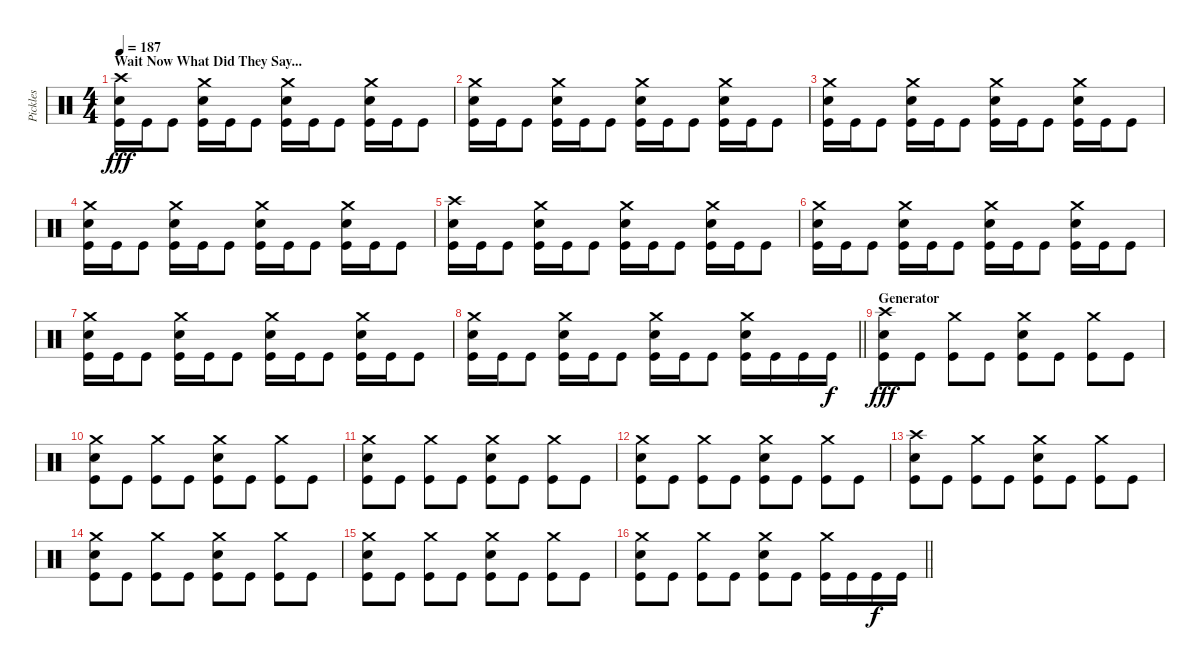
\track ("Pickles" "Pickles") {instrument percussion}
\staff {score}
\articulation defaults
\ts (4 4)
\section ("" "Wait Now What Did They Say...")
\tempo 187
\clef neutral
\ks c
("Crash high (hit)" "Snare (hit) 2" "Kick (hit)").16{dy fff} "Kick (hit)".16 "Kick (hit)".8 ("Crash medium (hit)" "Snare (hit) 2" "Kick (hit)").16 "Kick (hit)".16 "Kick (hit)".8 ("Crash medium (hit)" "Snare (hit) 2" "Kick (hit)").16 "Kick (hit)".16 "Kick (hit)".8 ("Crash medium (hit)" "Snare (hit) 2" "Kick (hit)").16 "Kick (hit)".16 "Kick (hit)".8 |
("Crash medium (hit)" "Snare (hit) 2" "Kick (hit)").16 "Kick (hit)".16 "Kick (hit)".8 ("Crash medium (hit)" "Snare (hit) 2" "Kick (hit)").16 "Kick (hit)".16 "Kick (hit)".8 ("Crash medium (hit)" "Snare (hit) 2" "Kick (hit)").16 "Kick (hit)".16 "Kick (hit)".8 ("Crash medium (hit)" "Snare (hit) 2" "Kick (hit)").16 "Kick (hit)".16 "Kick (hit)".8 |
("Crash medium (hit)" "Snare (hit) 2" "Kick (hit)").16 "Kick (hit)".16 "Kick (hit)".8 ("Crash medium (hit)" "Snare (hit) 2" "Kick (hit)").16 "Kick (hit)".16 "Kick (hit)".8 ("Crash medium (hit)" "Snare (hit) 2" "Kick (hit)").16 "Kick (hit)".16 "Kick (hit)".8 ("Crash medium (hit)" "Snare (hit) 2" "Kick (hit)").16 "Kick (hit)".16 "Kick (hit)".8 |
("Crash medium (hit)" "Snare (hit) 2" "Kick (hit)").16 "Kick (hit)".16 "Kick (hit)".8 ("Crash medium (hit)" "Snare (hit) 2" "Kick (hit)").16 "Kick (hit)".16 "Kick (hit)".8 ("Crash medium (hit)" "Snare (hit) 2" "Kick (hit)").16 "Kick (hit)".16 "Kick (hit)".8 ("Crash medium (hit)" "Snare (hit) 2" "Kick (hit)").16 "Kick (hit)".16 "Kick (hit)".8 |
("Crash high (hit)" "Snare (hit) 2" "Kick (hit)").16 "Kick (hit)".16 "Kick (hit)".8 ("Crash medium (hit)" "Snare (hit) 2" "Kick (hit)").16 "Kick (hit)".16 "Kick (hit)".8 ("Crash medium (hit)" "Snare (hit) 2" "Kick (hit)").16 "Kick (hit)".16 "Kick (hit)".8 ("Crash medium (hit)" "Snare (hit) 2" "Kick (hit)").16 "Kick (hit)".16 "Kick (hit)".8 |
("Crash medium (hit)" "Snare (hit) 2" "Kick (hit)").16 "Kick (hit)".16 "Kick (hit)".8 ("Crash medium (hit)" "Snare (hit) 2" "Kick (hit)").16 "Kick (hit)".16 "Kick (hit)".8 ("Crash medium (hit)" "Snare (hit) 2" "Kick (hit)").16 "Kick (hit)".16 "Kick (hit)".8 ("Crash medium (hit)" "Snare (hit) 2" "Kick (hit)").16 "Kick (hit)".16 "Kick (hit)".8 |
("Crash medium (hit)" "Snare (hit) 2" "Kick (hit)").16 "Kick (hit)".16 "Kick (hit)".8 ("Crash medium (hit)" "Snare (hit) 2" "Kick (hit)").16 "Kick (hit)".16 "Kick (hit)".8 ("Crash medium (hit)" "Snare (hit) 2" "Kick (hit)").16 "Kick (hit)".16 "Kick (hit)".8 ("Crash medium (hit)" "Snare (hit) 2" "Kick (hit)").16 "Kick (hit)".16 "Kick (hit)".8 |
\barLineRight lightlight
("Crash medium (hit)" "Snare (hit) 2" "Kick (hit)").16 "Kick (hit)".16 "Kick (hit)".8 ("Crash medium (hit)" "Snare (hit) 2" "Kick (hit)").16 "Kick (hit)".16 "Kick (hit)".8 ("Crash medium (hit)" "Snare (hit) 2" "Kick (hit)").16 "Kick (hit)".16 "Kick (hit)".8 ("Crash medium (hit)" "Snare (hit) 2" "Kick (hit)").16 "Kick (hit)".16 "Kick (hit)".16 "Kick (hit)".16{dy f} |
\section ("" "Generator")
("Crash high (hit)" "Snare (hit) 2" "Kick (hit)").8{dy fff} "Kick (hit)".8 ("Crash medium (hit)" "Kick (hit)").8 "Kick (hit)".8 ("Crash medium (hit)" "Snare (hit) 2" "Kick (hit)").8 "Kick (hit)".8 ("Crash medium (hit)" "Kick (hit)").8 "Kick (hit)".8 |
("Crash medium (hit)" "Snare (hit) 2" "Kick (hit)").8 "Kick (hit)".8 ("Crash medium (hit)" "Kick (hit)").8 "Kick (hit)".8 ("Crash medium (hit)" "Snare (hit) 2" "Kick (hit)").8 "Kick (hit)".8 ("Crash medium (hit)" "Kick (hit)").8 "Kick (hit)".8 |
("Crash medium (hit)" "Snare (hit) 2" "Kick (hit)").8 "Kick (hit)".8 ("Crash medium (hit)" "Kick (hit)").8 "Kick (hit)".8 ("Crash medium (hit)" "Snare (hit) 2" "Kick (hit)").8 "Kick (hit)".8 ("Crash medium (hit)" "Kick (hit)").8 "Kick (hit)".8 |
("Crash medium (hit)" "Snare (hit) 2" "Kick (hit)").8 "Kick (hit)".8 ("Crash medium (hit)" "Kick (hit)").8 "Kick (hit)".8 ("Crash medium (hit)" "Snare (hit) 2" "Kick (hit)").8 "Kick (hit)".8 ("Crash medium (hit)" "Kick (hit)").8 "Kick (hit)".8 |
("Crash high (hit)" "Snare (hit) 2" "Kick (hit)").8 "Kick (hit)".8 ("Crash medium (hit)" "Kick (hit)").8 "Kick (hit)".8 ("Crash medium (hit)" "Snare (hit) 2" "Kick (hit)").8 "Kick (hit)".8 ("Crash medium (hit)" "Kick (hit)").8 "Kick (hit)".8 |
("Crash medium (hit)" "Snare (hit) 2" "Kick (hit)").8 "Kick (hit)".8 ("Crash medium (hit)" "Kick (hit)").8 "Kick (hit)".8 ("Crash medium (hit)" "Snare (hit) 2" "Kick (hit)").8 "Kick (hit)".8 ("Crash medium (hit)" "Kick (hit)").8 "Kick (hit)".8 |
("Crash medium (hit)" "Snare (hit) 2" "Kick (hit)").8 "Kick (hit)".8 ("Crash medium (hit)" "Kick (hit)").8 "Kick (hit)".8 ("Crash medium (hit)" "Snare (hit) 2" "Kick (hit)").8 "Kick (hit)".8 ("Crash medium (hit)" "Kick (hit)").8 "Kick (hit)".8 |
\barLineRight lightlight
("Crash medium (hit)" "Snare (hit) 2" "Kick (hit)").8 "Kick (hit)".8 ("Crash medium (hit)" "Kick (hit)").8 "Kick (hit)".8 ("Crash medium (hit)" "Snare (hit) 2" "Kick (hit)").8 "Kick (hit)".8 ("Crash medium (hit)" "Kick (hit)").16 "Kick (hit)".16 "Kick (hit)".16{dy f} "Kick (hit)".16
